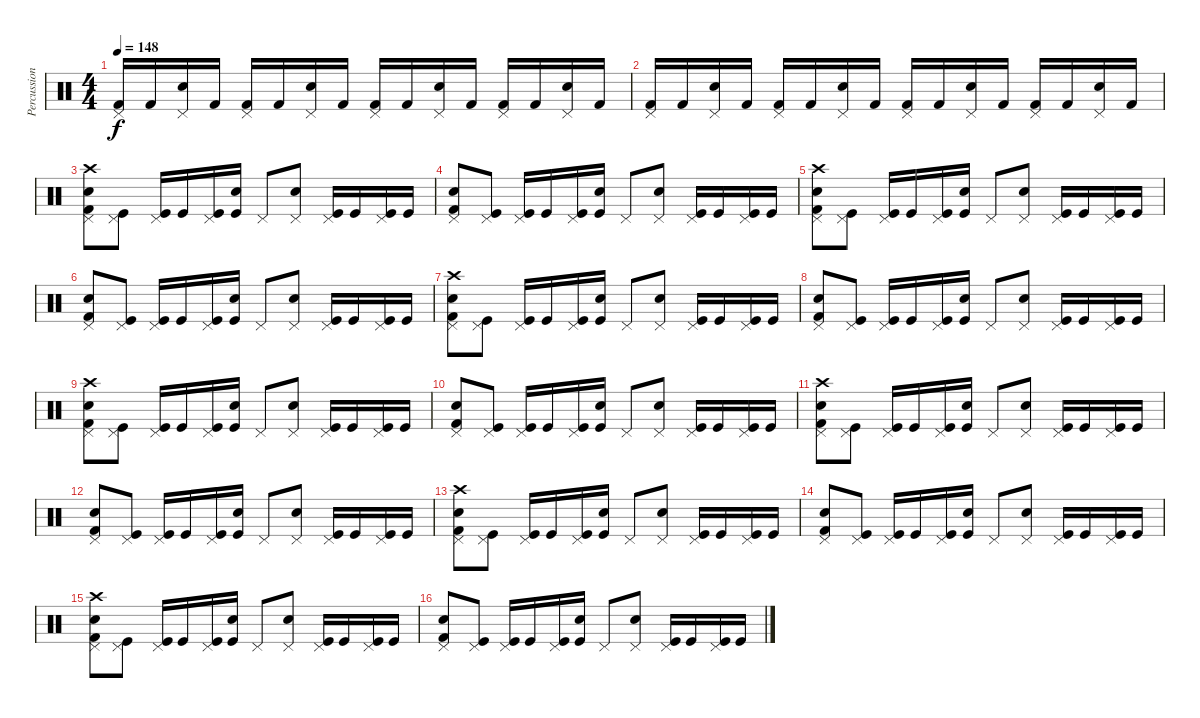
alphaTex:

\track ("Percussion" "Percussion") {instrument percussion}
\staff {score}
\articulation defaults
\ts (4 4)
\tempo 148
\clef neutral
\ks c
("Pedal Hi-Hat (hit)" "Kick (hit) 2").16{dy f} "Kick (hit) 2".16 ("Pedal Hi-Hat (hit)" "Snare (hit) 2").16 "Kick (hit) 2".16 ("Pedal Hi-Hat (hit)" "Kick (hit) 2").16 "Kick (hit) 2".16 ("Pedal Hi-Hat (hit)" "Snare (hit) 2").16 "Kick (hit) 2".16 ("Pedal Hi-Hat (hit)" "Kick (hit) 2").16 "Kick (hit) 2".16 ("Pedal Hi-Hat (hit)" "Snare (hit) 2").16 "Kick (hit) 2".16 ("Pedal Hi-Hat (hit)" "Kick (hit) 2").16 "Kick (hit) 2".16 ("Pedal Hi-Hat (hit)" "Snare (hit) 2").16 "Kick (hit) 2".16 |
("Pedal Hi-Hat (hit)" "Kick (hit) 2").16 "Kick (hit) 2".16 ("Pedal Hi-Hat (hit)" "Snare (hit) 2").16 "Kick (hit) 2".16 ("Pedal Hi-Hat (hit)" "Kick (hit) 2").16 "Kick (hit) 2".16 ("Pedal Hi-Hat (hit)" "Snare (hit) 2").16 "Kick (hit) 2".16 ("Pedal Hi-Hat (hit)" "Kick (hit) 2").16 "Kick (hit) 2".16 ("Pedal Hi-Hat (hit)" "Snare (hit) 2").16 "Kick (hit) 2".16 ("Pedal Hi-Hat (hit)" "Kick (hit) 2").16 "Kick (hit) 2".16 ("Pedal Hi-Hat (hit)" "Snare (hit) 2").16 "Kick (hit) 2".16 |
("Pedal Hi-Hat (hit)" "Kick (hit) 2" "Snare (hit) 2" "Crash high (hit)").8 ("Pedal Hi-Hat (hit)" "Kick (hit)").8 ("Pedal Hi-Hat (hit)" "Kick (hit)").16 "Kick (hit)".16 ("Pedal Hi-Hat (hit)" "Kick (hit)").16 ("Snare (hit) 2" "Kick (hit)").16 "Pedal Hi-Hat (hit)".8 ("Pedal Hi-Hat (hit)" "Snare (hit) 2").8 ("Pedal Hi-Hat (hit)" "Kick (hit)").16 "Kick (hit)".16 ("Pedal Hi-Hat (hit)" "Kick (hit)").16 "Kick (hit)".16 |
("Pedal Hi-Hat (hit)" "Kick (hit) 2" "Snare (hit) 2").8 ("Pedal Hi-Hat (hit)" "Kick (hit)").8 ("Pedal Hi-Hat (hit)" "Kick (hit)").16 "Kick (hit)".16 ("Pedal Hi-Hat (hit)" "Kick (hit)").16 ("Snare (hit) 2" "Kick (hit)").16 "Pedal Hi-Hat (hit)".8 ("Pedal Hi-Hat (hit)" "Snare (hit) 2").8 ("Pedal Hi-Hat (hit)" "Kick (hit)").16 "Kick (hit)".16 ("Pedal Hi-Hat (hit)" "Kick (hit)").16 "Kick (hit)".16 |
("Pedal Hi-Hat (hit)" "Kick (hit) 2" "Snare (hit) 2" "Crash high (hit)").8 ("Pedal Hi-Hat (hit)" "Kick (hit)").8 ("Pedal Hi-Hat (hit)" "Kick (hit)").16 "Kick (hit)".16 ("Pedal Hi-Hat (hit)" "Kick (hit)").16 ("Snare (hit) 2" "Kick (hit)").16 "Pedal Hi-Hat (hit)".8 ("Pedal Hi-Hat (hit)" "Snare (hit) 2").8 ("Pedal Hi-Hat (hit)" "Kick (hit)").16 "Kick (hit)".16 ("Pedal Hi-Hat (hit)" "Kick (hit)").16 "Kick (hit)".16 |
("Pedal Hi-Hat (hit)" "Kick (hit) 2" "Snare (hit) 2").8 ("Pedal Hi-Hat (hit)" "Kick (hit)").8 ("Pedal Hi-Hat (hit)" "Kick (hit)").16 "Kick (hit)".16 ("Pedal Hi-Hat (hit)" "Kick (hit)").16 ("Snare (hit) 2" "Kick (hit)").16 "Pedal Hi-Hat (hit)".8 ("Pedal Hi-Hat (hit)" "Snare (hit) 2").8 ("Pedal Hi-Hat (hit)" "Kick (hit)").16 "Kick (hit)".16 ("Pedal Hi-Hat (hit)" "Kick (hit)").16 "Kick (hit)".16 |
("Pedal Hi-Hat (hit)" "Kick (hit) 2" "Snare (hit) 2" "Crash high (hit)").8 ("Pedal Hi-Hat (hit)" "Kick (hit)").8 ("Pedal Hi-Hat (hit)" "Kick (hit)").16 "Kick (hit)".16 ("Pedal Hi-Hat (hit)" "Kick (hit)").16 ("Snare (hit) 2" "Kick (hit)").16 "Pedal Hi-Hat (hit)".8 ("Pedal Hi-Hat (hit)" "Snare (hit) 2").8 ("Pedal Hi-Hat (hit)" "Kick (hit)").16 "Kick (hit)".16 ("Pedal Hi-Hat (hit)" "Kick (hit)").16 "Kick (hit)".16 |
("Pedal Hi-Hat (hit)" "Kick (hit) 2" "Snare (hit) 2").8 ("Pedal Hi-Hat (hit)" "Kick (hit)").8 ("Pedal Hi-Hat (hit)" "Kick (hit)").16 "Kick (hit)".16 ("Pedal Hi-Hat (hit)" "Kick (hit)").16 ("Snare (hit) 2" "Kick (hit)").16 "Pedal Hi-Hat (hit)".8 ("Pedal Hi-Hat (hit)" "Snare (hit) 2").8 ("Pedal Hi-Hat (hit)" "Kick (hit)").16 "Kick (hit)".16 ("Pedal Hi-Hat (hit)" "Kick (hit)").16 "Kick (hit)".16 |
("Pedal Hi-Hat (hit)" "Kick (hit) 2" "Snare (hit) 2" "Crash high (hit)").8 ("Pedal Hi-Hat (hit)" "Kick (hit)").8 ("Pedal Hi-Hat (hit)" "Kick (hit)").16 "Kick (hit)".16 ("Pedal Hi-Hat (hit)" "Kick (hit)").16 ("Snare (hit) 2" "Kick (hit)").16 "Pedal Hi-Hat (hit)".8 ("Pedal Hi-Hat (hit)" "Snare (hit) 2").8 ("Pedal Hi-Hat (hit)" "Kick (hit)").16 "Kick (hit)".16 ("Pedal Hi-Hat (hit)" "Kick (hit)").16 "Kick (hit)".16 |
("Pedal Hi-Hat (hit)" "Kick (hit) 2" "Snare (hit) 2").8 ("Pedal Hi-Hat (hit)" "Kick (hit)").8 ("Pedal Hi-Hat (hit)" "Kick (hit)").16 "Kick (hit)".16 ("Pedal Hi-Hat (hit)" "Kick (hit)").16 ("Snare (hit) 2" "Kick (hit)").16 "Pedal Hi-Hat (hit)".8 ("Pedal Hi-Hat (hit)" "Snare (hit) 2").8 ("Pedal Hi-Hat (hit)" "Kick (hit)").16 "Kick (hit)".16 ("Pedal Hi-Hat (hit)" "Kick (hit)").16 "Kick (hit)".16 |
("Pedal Hi-Hat (hit)" "Kick (hit) 2" "Snare (hit) 2" "Crash high (hit)").8 ("Pedal Hi-Hat (hit)" "Kick (hit)").8 ("Pedal Hi-Hat (hit)" "Kick (hit)").16 "Kick (hit)".16 ("Pedal Hi-Hat (hit)" "Kick (hit)").16 ("Snare (hit) 2" "Kick (hit)").16 "Pedal Hi-Hat (hit)".8 ("Pedal Hi-Hat (hit)" "Snare (hit) 2").8 ("Pedal Hi-Hat (hit)" "Kick (hit)").16 "Kick (hit)".16 ("Pedal Hi-Hat (hit)" "Kick (hit)").16 "Kick (hit)".16 |
("Pedal Hi-Hat (hit)" "Kick (hit) 2" "Snare (hit) 2").8 ("Pedal Hi-Hat (hit)" "Kick (hit)").8 ("Pedal Hi-Hat (hit)" "Kick (hit)").16 "Kick (hit)".16 ("Pedal Hi-Hat (hit)" "Kick (hit)").16 ("Snare (hit) 2" "Kick (hit)").16 "Pedal Hi-Hat (hit)".8 ("Pedal Hi-Hat (hit)" "Snare (hit) 2").8 ("Pedal Hi-Hat (hit)" "Kick (hit)").16 "Kick (hit)".16 ("Pedal Hi-Hat (hit)" "Kick (hit)").16 "Kick (hit)".16 |
("Pedal Hi-Hat (hit)" "Kick (hit) 2" "Snare (hit) 2" "Crash high (hit)").8 ("Pedal Hi-Hat (hit)" "Kick (hit)").8 ("Pedal Hi-Hat (hit)" "Kick (hit)").16 "Kick (hit)".16 ("Pedal Hi-Hat (hit)" "Kick (hit)").16 ("Snare (hit) 2" "Kick (hit)").16 "Pedal Hi-Hat (hit)".8 ("Pedal Hi-Hat (hit)" "Snare (hit) 2").8 ("Pedal Hi-Hat (hit)" "Kick (hit)").16 "Kick (hit)".16 ("Pedal Hi-Hat (hit)" "Kick (hit)").16 "Kick (hit)".16 |
("Pedal Hi-Hat (hit)" "Kick (hit) 2" "Snare (hit) 2").8 ("Pedal Hi-Hat (hit)" "Kick (hit)").8 ("Pedal Hi-Hat (hit)" "Kick (hit)").16 "Kick (hit)".16 ("Pedal Hi-Hat (hit)" "Kick (hit)").16 ("Snare (hit) 2" "Kick (hit)").16 "Pedal Hi-Hat (hit)".8 ("Pedal Hi-Hat (hit)" "Snare (hit) 2").8 ("Pedal Hi-Hat (hit)" "Kick (hit)").16 "Kick (hit)".16 ("Pedal Hi-Hat (hit)" "Kick (hit)").16 "Kick (hit)".16 |
("Pedal Hi-Hat (hit)" "Kick (hit) 2" "Snare (hit) 2" "Crash high (hit)").8 ("Pedal Hi-Hat (hit)" "Kick (hit)").8 ("Pedal Hi-Hat (hit)" "Kick (hit)").16 "Kick (hit)".16 ("Pedal Hi-Hat (hit)" "Kick (hit)").16 ("Snare (hit) 2" "Kick (hit)").16 "Pedal Hi-Hat (hit)".8 ("Pedal Hi-Hat (hit)" "Snare (hit) 2").8 ("Pedal Hi-Hat (hit)" "Kick (hit)").16 "Kick (hit)".16 ("Pedal Hi-Hat (hit)" "Kick (hit)").16 "Kick (hit)".16 |
("Pedal Hi-Hat (hit)" "Kick (hit) 2" "Snare (hit) 2").8 ("Pedal Hi-Hat (hit)" "Kick (hit)").8 ("Pedal Hi-Hat (hit)" "Kick (hit)").16 "Kick (hit)".16 ("Pedal Hi-Hat (hit)" "Kick (hit)").16 ("Snare (hit) 2" "Kick (hit)").16 "Pedal Hi-Hat (hit)".8 ("Pedal Hi-Hat (hit)" "Snare (hit) 2").8 ("Pedal Hi-Hat (hit)" "Kick (hit)").16 "Kick (hit)".16 ("Pedal Hi-Hat (hit)" "Kick (hit)").16 "Kick (hit)".16
